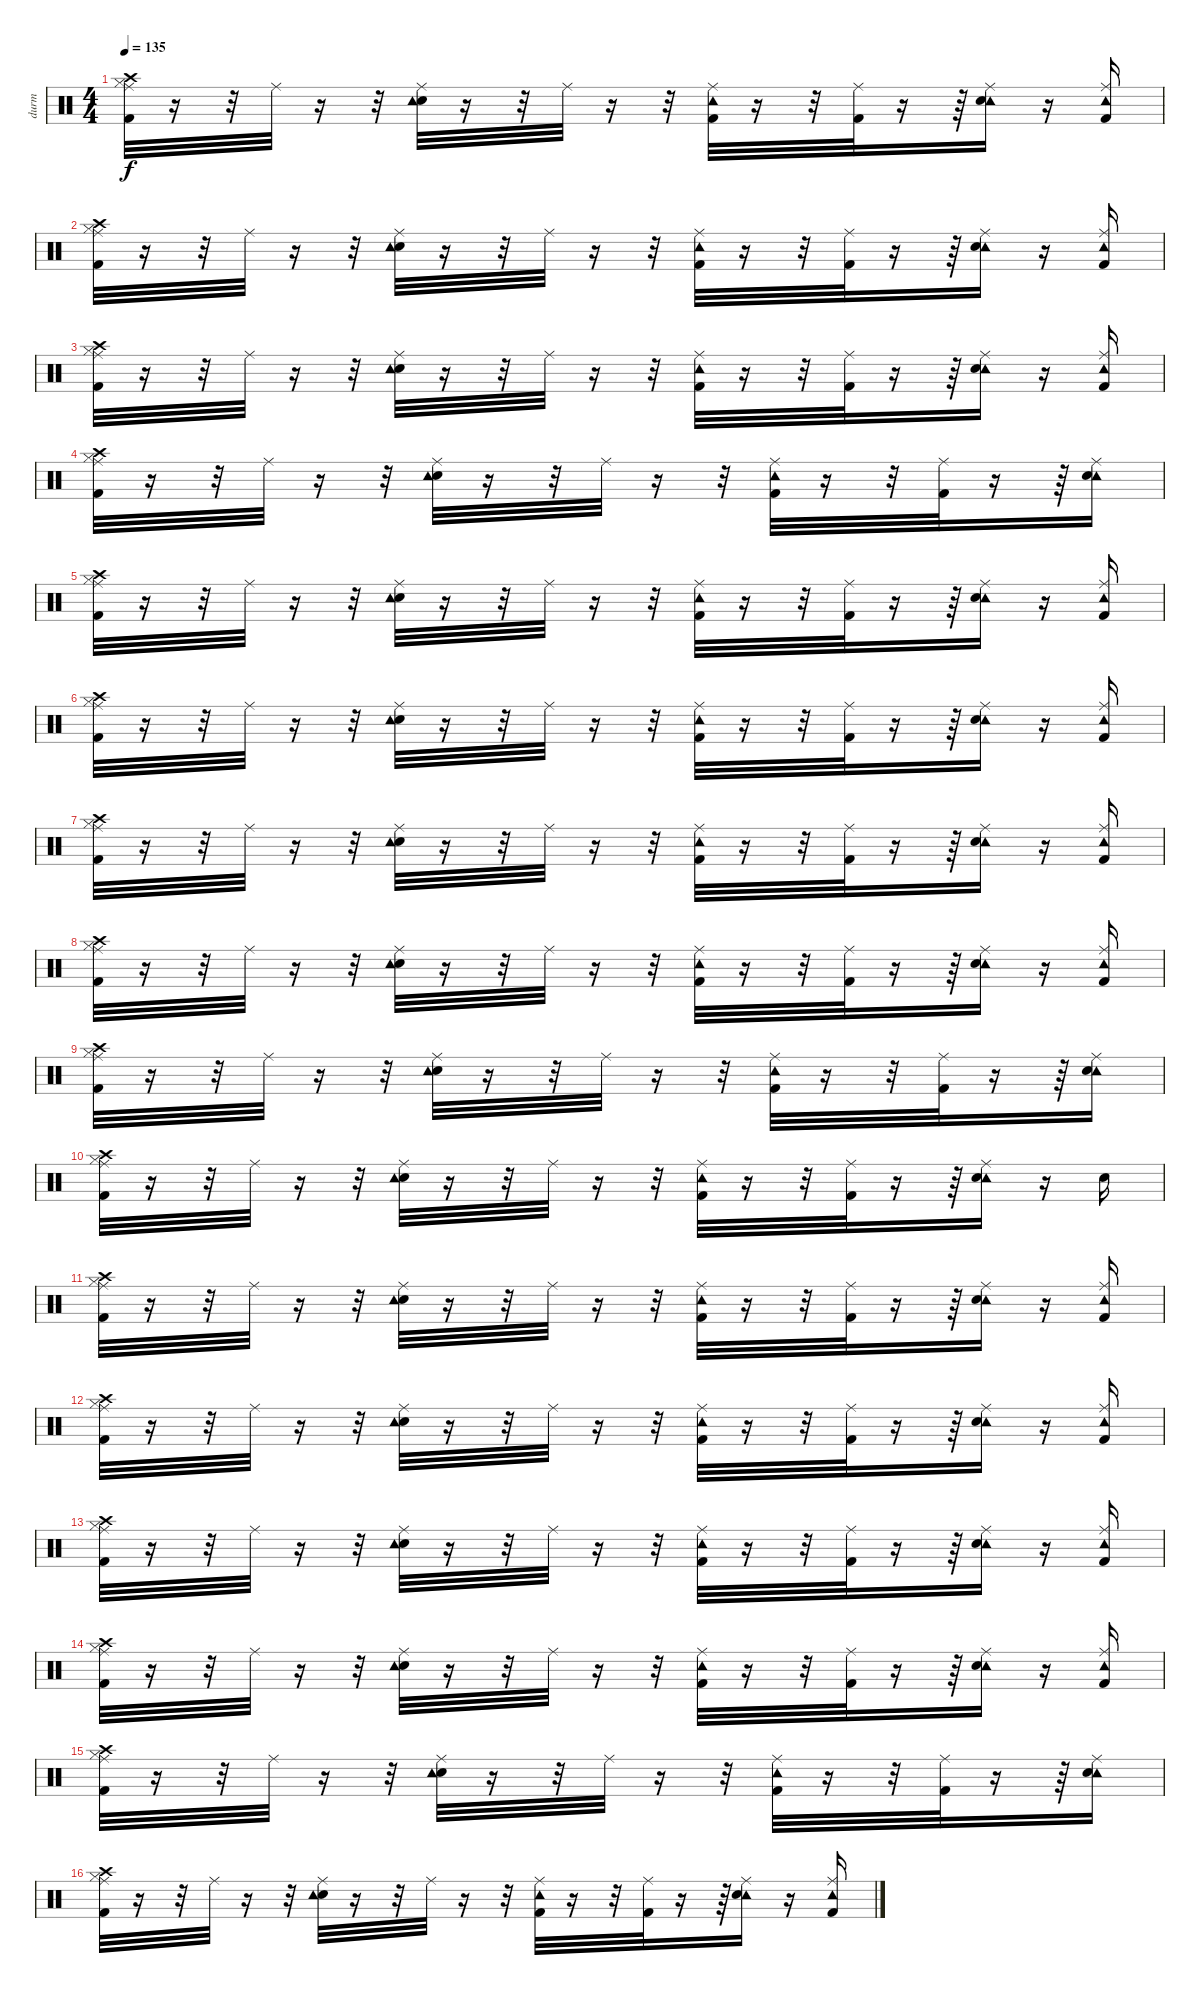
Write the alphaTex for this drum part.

\track ("durm" "durm") {instrument percussion}
\staff {score}
\articulation defaults
\ts (4 4)
\tempo 135
\clef neutral
\ks c
("Crash high (hit)" "Hi-Hat (closed)" "Kick (hit) 2" "Ride (middle)").32{dy f} r.16 r.32 "Ride (middle)".32 r.16 r.32 ("Electric Snare (hit)" "Ride (middle)" "Tambourine (hit)").32 r.16 r.32 "Ride (middle)".32 r.16 r.32 ("Kick (hit) 2" "Ride (middle)" "Tambourine (hit)").32 r.16 r.32 ("Kick (hit) 2" "Ride (middle)").32 r.16 r.64 ("Ride (middle)" "Tambourine (hit)" "Electric Snare (hit)").16 r.16 ("Ride (middle)" "Kick (hit) 2" "Tambourine (hit)").16 |
("Crash high (hit)" "Hi-Hat (closed)" "Kick (hit) 2" "Ride (middle)").32 r.16 r.32 "Ride (middle)".32 r.16 r.32 ("Electric Snare (hit)" "Ride (middle)" "Tambourine (hit)").32 r.16 r.32 "Ride (middle)".32 r.16 r.32 ("Kick (hit) 2" "Ride (middle)" "Tambourine (hit)").32 r.16 r.32 ("Kick (hit) 2" "Ride (middle)").32 r.16 r.64 ("Ride (middle)" "Tambourine (hit)" "Electric Snare (hit)").16 r.16 ("Ride (middle)" "Kick (hit) 2" "Tambourine (hit)").16 |
("Crash high (hit)" "Hi-Hat (closed)" "Kick (hit) 2" "Ride (middle)").32 r.16 r.32 "Ride (middle)".32 r.16 r.32 ("Electric Snare (hit)" "Ride (middle)" "Tambourine (hit)").32 r.16 r.32 "Ride (middle)".32 r.16 r.32 ("Kick (hit) 2" "Ride (middle)" "Tambourine (hit)").32 r.16 r.32 ("Kick (hit) 2" "Ride (middle)").32 r.16 r.64 ("Ride (middle)" "Tambourine (hit)" "Electric Snare (hit)").16 r.16 ("Ride (middle)" "Kick (hit) 2" "Tambourine (hit)").16 |
("Crash high (hit)" "Hi-Hat (closed)" "Kick (hit) 2" "Ride (middle)").32 r.16 r.32 "Ride (middle)".32 r.16 r.32 ("Electric Snare (hit)" "Ride (middle)" "Tambourine (hit)").32 r.16 r.32 "Ride (middle)".32 r.16 r.32 ("Kick (hit) 2" "Ride (middle)" "Tambourine (hit)").32 r.16 r.32 ("Kick (hit) 2" "Ride (middle)").32 r.16 r.64 ("Ride (middle)" "Tambourine (hit)" "Electric Snare (hit)").16 |
("Crash high (hit)" "Hi-Hat (closed)" "Kick (hit) 2" "Ride (middle)").32 r.16 r.32 "Ride (middle)".32 r.16 r.32 ("Electric Snare (hit)" "Ride (middle)" "Tambourine (hit)").32 r.16 r.32 "Ride (middle)".32 r.16 r.32 ("Kick (hit) 2" "Ride (middle)" "Tambourine (hit)").32 r.16 r.32 ("Kick (hit) 2" "Ride (middle)").32 r.16 r.64 ("Ride (middle)" "Tambourine (hit)" "Electric Snare (hit)").16 r.16 ("Ride (middle)" "Kick (hit) 2" "Tambourine (hit)").16 |
("Crash high (hit)" "Hi-Hat (closed)" "Kick (hit) 2" "Ride (middle)").32 r.16 r.32 "Ride (middle)".32 r.16 r.32 ("Electric Snare (hit)" "Ride (middle)" "Tambourine (hit)").32 r.16 r.32 "Ride (middle)".32 r.16 r.32 ("Kick (hit) 2" "Ride (middle)" "Tambourine (hit)").32 r.16 r.32 ("Kick (hit) 2" "Ride (middle)").32 r.16 r.64 ("Ride (middle)" "Tambourine (hit)" "Electric Snare (hit)").16 r.16 ("Ride (middle)" "Kick (hit) 2" "Tambourine (hit)").16 |
("Crash high (hit)" "Hi-Hat (closed)" "Kick (hit) 2" "Ride (middle)").32 r.16 r.32 "Ride (middle)".32 r.16 r.32 ("Electric Snare (hit)" "Ride (middle)" "Tambourine (hit)").32 r.16 r.32 "Ride (middle)".32 r.16 r.32 ("Kick (hit) 2" "Ride (middle)" "Tambourine (hit)").32 r.16 r.32 ("Kick (hit) 2" "Ride (middle)").32 r.16 r.64 ("Ride (middle)" "Tambourine (hit)" "Electric Snare (hit)").16 r.16 ("Ride (middle)" "Kick (hit) 2" "Tambourine (hit)").16 |
("Crash high (hit)" "Hi-Hat (closed)" "Kick (hit) 2" "Ride (middle)").32 r.16 r.32 "Ride (middle)".32 r.16 r.32 ("Electric Snare (hit)" "Ride (middle)" "Tambourine (hit)").32 r.16 r.32 "Ride (middle)".32 r.16 r.32 ("Kick (hit) 2" "Ride (middle)" "Tambourine (hit)").32 r.16 r.32 ("Kick (hit) 2" "Ride (middle)").32 r.16 r.64 ("Ride (middle)" "Tambourine (hit)" "Electric Snare (hit)").16 r.16 ("Ride (middle)" "Kick (hit) 2" "Tambourine (hit)").16 |
("Crash high (hit)" "Hi-Hat (closed)" "Kick (hit) 2" "Ride (middle)").32 r.16 r.32 "Ride (middle)".32 r.16 r.32 ("Electric Snare (hit)" "Ride (middle)" "Tambourine (hit)").32 r.16 r.32 "Ride (middle)".32 r.16 r.32 ("Kick (hit) 2" "Ride (middle)" "Tambourine (hit)").32 r.16 r.32 ("Kick (hit) 2" "Ride (middle)").32 r.16 r.64 ("Ride (middle)" "Tambourine (hit)" "Electric Snare (hit)").16 |
("Crash high (hit)" "Hi-Hat (closed)" "Kick (hit) 2" "Ride (middle)").32 r.16 r.32 "Ride (middle)".32 r.16 r.32 ("Electric Snare (hit)" "Ride (middle)" "Tambourine (hit)").32 r.16 r.32 "Ride (middle)".32 r.16 r.32 ("Kick (hit) 2" "Ride (middle)" "Tambourine (hit)").32 r.16 r.32 ("Kick (hit) 2" "Ride (middle)").32 r.16 r.64 ("Ride (middle)" "Tambourine (hit)" "Electric Snare (hit)").16 r.16 "Electric Snare (hit)".16 |
("Crash high (hit)" "Hi-Hat (closed)" "Kick (hit) 2" "Ride (middle)").32 r.16 r.32 "Ride (middle)".32 r.16 r.32 ("Electric Snare (hit)" "Ride (middle)" "Tambourine (hit)").32 r.16 r.32 "Ride (middle)".32 r.16 r.32 ("Kick (hit) 2" "Ride (middle)" "Tambourine (hit)").32 r.16 r.32 ("Kick (hit) 2" "Ride (middle)").32 r.16 r.64 ("Ride (middle)" "Tambourine (hit)" "Electric Snare (hit)").16 r.16 ("Ride (middle)" "Kick (hit) 2" "Tambourine (hit)").16 |
("Crash high (hit)" "Hi-Hat (closed)" "Kick (hit) 2" "Ride (middle)").32 r.16 r.32 "Ride (middle)".32 r.16 r.32 ("Electric Snare (hit)" "Ride (middle)" "Tambourine (hit)").32 r.16 r.32 "Ride (middle)".32 r.16 r.32 ("Kick (hit) 2" "Ride (middle)" "Tambourine (hit)").32 r.16 r.32 ("Kick (hit) 2" "Ride (middle)").32 r.16 r.64 ("Ride (middle)" "Tambourine (hit)" "Electric Snare (hit)").16 r.16 ("Ride (middle)" "Kick (hit) 2" "Tambourine (hit)").16 |
("Crash high (hit)" "Hi-Hat (closed)" "Kick (hit) 2" "Ride (middle)").32 r.16 r.32 "Ride (middle)".32 r.16 r.32 ("Electric Snare (hit)" "Ride (middle)" "Tambourine (hit)").32 r.16 r.32 "Ride (middle)".32 r.16 r.32 ("Kick (hit) 2" "Ride (middle)" "Tambourine (hit)").32 r.16 r.32 ("Kick (hit) 2" "Ride (middle)").32 r.16 r.64 ("Ride (middle)" "Tambourine (hit)" "Electric Snare (hit)").16 r.16 ("Ride (middle)" "Kick (hit) 2" "Tambourine (hit)").16 |
("Crash high (hit)" "Hi-Hat (closed)" "Kick (hit) 2" "Ride (middle)").32 r.16 r.32 "Ride (middle)".32 r.16 r.32 ("Electric Snare (hit)" "Ride (middle)" "Tambourine (hit)").32 r.16 r.32 "Ride (middle)".32 r.16 r.32 ("Kick (hit) 2" "Ride (middle)" "Tambourine (hit)").32 r.16 r.32 ("Kick (hit) 2" "Ride (middle)").32 r.16 r.64 ("Ride (middle)" "Tambourine (hit)" "Electric Snare (hit)").16 r.16 ("Ride (middle)" "Kick (hit) 2" "Tambourine (hit)").16 |
("Crash high (hit)" "Hi-Hat (closed)" "Kick (hit) 2" "Ride (middle)").32 r.16 r.32 "Ride (middle)".32 r.16 r.32 ("Electric Snare (hit)" "Ride (middle)" "Tambourine (hit)").32 r.16 r.32 "Ride (middle)".32 r.16 r.32 ("Kick (hit) 2" "Ride (middle)" "Tambourine (hit)").32 r.16 r.32 ("Kick (hit) 2" "Ride (middle)").32 r.16 r.64 ("Ride (middle)" "Tambourine (hit)" "Electric Snare (hit)").16 |
("Crash high (hit)" "Hi-Hat (closed)" "Kick (hit) 2" "Ride (middle)").32 r.16 r.32 "Ride (middle)".32 r.16 r.32 ("Electric Snare (hit)" "Ride (middle)" "Tambourine (hit)").32 r.16 r.32 "Ride (middle)".32 r.16 r.32 ("Kick (hit) 2" "Ride (middle)" "Tambourine (hit)").32 r.16 r.32 ("Kick (hit) 2" "Ride (middle)").32 r.16 r.64 ("Ride (middle)" "Tambourine (hit)" "Electric Snare (hit)").16 r.16 ("Ride (middle)" "Kick (hit) 2" "Tambourine (hit)").16
